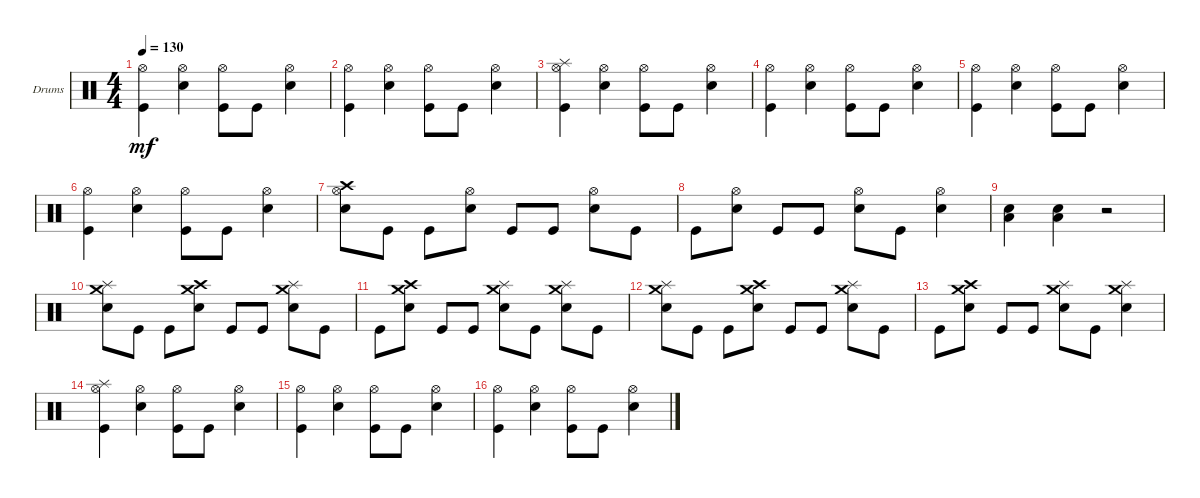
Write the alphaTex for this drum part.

\defaultSystemsLayout 4
\bracketExtendMode groupsimilarinstruments
\firstSystemTrackNameOrientation horizontal
\otherSystemsTrackNameOrientation horizontal
\track ("Drumkit" "Drums") {instrument percussion}
\staff {score}
\articulation defaults
\ts (4 4)
\tempo 130
\clef neutral
\ks c
("Hi-Hat (open)" "Kick (hit)").4{dy mf} ("Snare (hit) 2" "Hi-Hat (open)").4 ("Kick (hit)" "Hi-Hat (open)").8 "Kick (hit)".8 ("Snare (hit) 2" "Hi-Hat (open)").4 |
("Hi-Hat (open)" "Kick (hit)").4 ("Snare (hit) 2" "Hi-Hat (open)").4 ("Kick (hit)" "Hi-Hat (open)").8 "Kick (hit)".8 ("Snare (hit) 2" "Hi-Hat (open)").4 |
("Splash (hit)" "Hi-Hat (open)" "Kick (hit)").4 ("Snare (hit) 2" "Hi-Hat (open)").4 ("Kick (hit)" "Hi-Hat (open)").8 "Kick (hit)".8 ("Snare (hit) 2" "Hi-Hat (open)").4 |
("Hi-Hat (open)" "Kick (hit)").4 ("Snare (hit) 2" "Hi-Hat (open)").4 ("Kick (hit)" "Hi-Hat (open)").8 "Kick (hit)".8 ("Snare (hit) 2" "Hi-Hat (open)").4 |
("Hi-Hat (open)" "Kick (hit)").4 ("Snare (hit) 2" "Hi-Hat (open)").4 ("Kick (hit)" "Hi-Hat (open)").8 "Kick (hit)".8 ("Snare (hit) 2" "Hi-Hat (open)").4 |
("Hi-Hat (open)" "Kick (hit)").4 ("Snare (hit) 2" "Hi-Hat (open)").4 ("Kick (hit)" "Hi-Hat (open)").8 "Kick (hit)".8 ("Snare (hit) 2" "Hi-Hat (open)").4 |
("Snare (hit) 2" "Hi-Hat (open)" "Crash high (hit)").8 "Kick (hit)".8 "Kick (hit)".8 ("Snare (hit) 2" "Hi-Hat (open)").8 "Kick (hit)".8 "Kick (hit)".8 ("Snare (hit) 2" "Hi-Hat (open)").8 "Kick (hit)".8 |
"Kick (hit)".8 ("Snare (hit) 2" "Hi-Hat (open)").8 "Kick (hit)".8 "Kick (hit)".8 ("Snare (hit) 2" "Hi-Hat (open)").8 "Kick (hit)".8 ("Snare (hit) 2" "Hi-Hat (open)").4 |
("Snare (hit) 2" "Low Tom (hit)").4 ("Snare (hit) 2" "Low Tom (hit)").4 r.2 |
("Snare (hit) 2" "Splash (hit)" "Crash medium (hit)").8 "Kick (hit)".8 "Kick (hit)".8 ("Snare (hit) 2" "Crash high (hit)" "Crash medium (hit)").8 "Kick (hit)".8 "Kick (hit)".8 ("Snare (hit) 2" "Splash (hit)" "Crash medium (hit)").8 "Kick (hit)".8 |
"Kick (hit)".8 ("Snare (hit) 2" "Crash high (hit)" "Crash medium (hit)").8 "Kick (hit)".8 "Kick (hit)".8 ("Snare (hit) 2" "Splash (hit)" "Crash medium (hit)").8 "Kick (hit)".8 ("Snare (hit) 2" "Splash (hit)" "Crash medium (hit)").8 "Kick (hit)".8 |
("Snare (hit) 2" "Splash (hit)" "Crash medium (hit)").8 "Kick (hit)".8 "Kick (hit)".8 ("Snare (hit) 2" "Crash high (hit)" "Crash medium (hit)").8 "Kick (hit)".8 "Kick (hit)".8 ("Snare (hit) 2" "Splash (hit)" "Crash medium (hit)").8 "Kick (hit)".8 |
"Kick (hit)".8 ("Snare (hit) 2" "Crash high (hit)" "Crash medium (hit)").8 "Kick (hit)".8 "Kick (hit)".8 ("Snare (hit) 2" "Splash (hit)" "Crash medium (hit)").8 "Kick (hit)".8 ("Snare (hit) 2" "Splash (hit)" "Crash medium (hit)").4 |
("Splash (hit)" "Hi-Hat (open)" "Kick (hit)").4 ("Snare (hit) 2" "Hi-Hat (open)").4 ("Kick (hit)" "Hi-Hat (open)").8 "Kick (hit)".8 ("Snare (hit) 2" "Hi-Hat (open)").4 |
("Hi-Hat (open)" "Kick (hit)").4 ("Snare (hit) 2" "Hi-Hat (open)").4 ("Kick (hit)" "Hi-Hat (open)").8 "Kick (hit)".8 ("Snare (hit) 2" "Hi-Hat (open)").4 |
("Hi-Hat (open)" "Kick (hit)").4 ("Snare (hit) 2" "Hi-Hat (open)").4 ("Kick (hit)" "Hi-Hat (open)").8 "Kick (hit)".8 ("Snare (hit) 2" "Hi-Hat (open)").4
